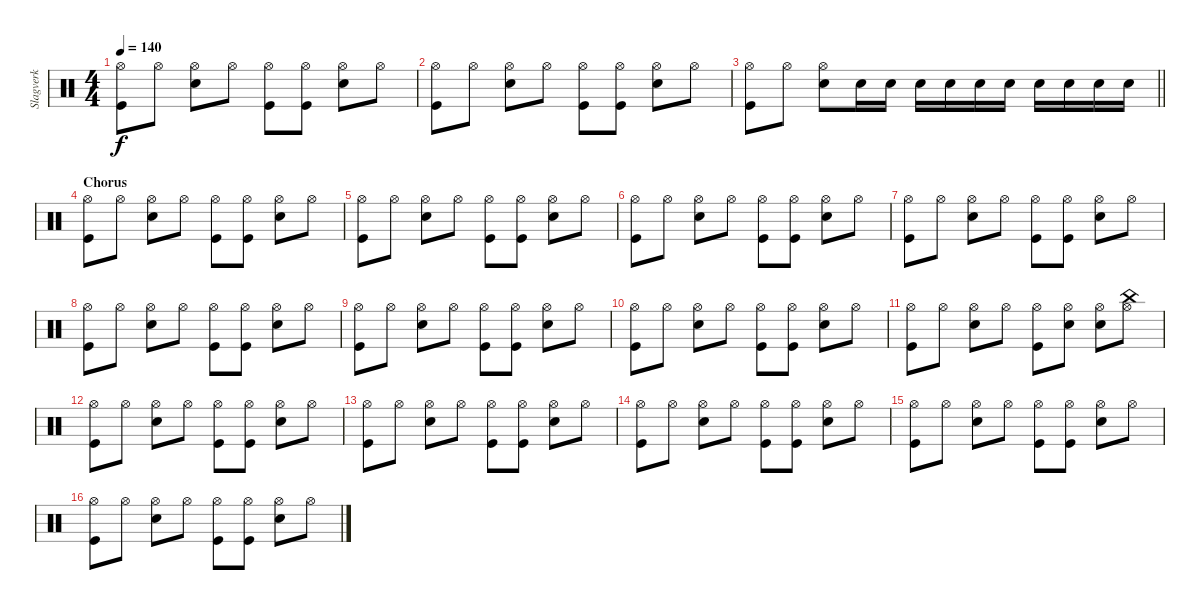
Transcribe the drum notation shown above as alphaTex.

\track ("Slagverk" "Slagverk") {instrument percussion}
\staff {score}
\articulation defaults
\ts (4 4)
\tempo 140
\clef neutral
\ks c
("Hi-Hat (open)" "Kick (hit)").8{dy f} "Hi-Hat (open)".8 ("Hi-Hat (open)" "Snare (hit) 2").8 "Hi-Hat (open)".8 ("Hi-Hat (open)" "Kick (hit)").8 ("Hi-Hat (open)" "Kick (hit)").8 ("Hi-Hat (open)" "Snare (hit) 2").8 "Hi-Hat (open)".8 |
("Hi-Hat (open)" "Kick (hit)").8 "Hi-Hat (open)".8 ("Hi-Hat (open)" "Snare (hit) 2").8 "Hi-Hat (open)".8 ("Hi-Hat (open)" "Kick (hit)").8 ("Hi-Hat (open)" "Kick (hit)").8 ("Hi-Hat (open)" "Snare (hit) 2").8 "Hi-Hat (open)".8 |
\barLineRight lightlight
("Hi-Hat (open)" "Kick (hit)").8 "Hi-Hat (open)".8 ("Hi-Hat (open)" "Snare (hit) 2").8 "Snare (hit) 2".16 "Snare (hit) 2".16 "Snare (hit) 2".16 "Snare (hit) 2".16 "Snare (hit) 2".16 "Snare (hit) 2".16 "Snare (hit) 2".16 "Snare (hit) 2".16 "Snare (hit) 2".16 "Snare (hit) 2".16 |
\section ("" "Chorus")
("Hi-Hat (open)" "Kick (hit)").8 "Hi-Hat (open)".8 ("Hi-Hat (open)" "Snare (hit) 2").8 "Hi-Hat (open)".8 ("Hi-Hat (open)" "Kick (hit)").8 ("Hi-Hat (open)" "Kick (hit)").8 ("Hi-Hat (open)" "Snare (hit) 2").8 "Hi-Hat (open)".8 |
("Hi-Hat (open)" "Kick (hit)").8 "Hi-Hat (open)".8 ("Hi-Hat (open)" "Snare (hit) 2").8 "Hi-Hat (open)".8 ("Hi-Hat (open)" "Kick (hit)").8 ("Hi-Hat (open)" "Kick (hit)").8 ("Hi-Hat (open)" "Snare (hit) 2").8 "Hi-Hat (open)".8 |
("Hi-Hat (open)" "Kick (hit)").8 "Hi-Hat (open)".8 ("Hi-Hat (open)" "Snare (hit) 2").8 "Hi-Hat (open)".8 ("Hi-Hat (open)" "Kick (hit)").8 ("Hi-Hat (open)" "Kick (hit)").8 ("Hi-Hat (open)" "Snare (hit) 2").8 "Hi-Hat (open)".8 |
("Hi-Hat (open)" "Kick (hit)").8 "Hi-Hat (open)".8 ("Hi-Hat (open)" "Snare (hit) 2").8 "Hi-Hat (open)".8 ("Hi-Hat (open)" "Kick (hit)").8 ("Hi-Hat (open)" "Kick (hit)").8 ("Hi-Hat (open)" "Snare (hit) 2").8 "Hi-Hat (open)".8 |
("Hi-Hat (open)" "Kick (hit)").8 "Hi-Hat (open)".8 ("Hi-Hat (open)" "Snare (hit) 2").8 "Hi-Hat (open)".8 ("Hi-Hat (open)" "Kick (hit)").8 ("Hi-Hat (open)" "Kick (hit)").8 ("Hi-Hat (open)" "Snare (hit) 2").8 "Hi-Hat (open)".8 |
("Hi-Hat (open)" "Kick (hit)").8 "Hi-Hat (open)".8 ("Hi-Hat (open)" "Snare (hit) 2").8 "Hi-Hat (open)".8 ("Hi-Hat (open)" "Kick (hit)").8 ("Hi-Hat (open)" "Kick (hit)").8 ("Hi-Hat (open)" "Snare (hit) 2").8 "Hi-Hat (open)".8 |
("Hi-Hat (open)" "Kick (hit)").8 "Hi-Hat (open)".8 ("Hi-Hat (open)" "Snare (hit) 2").8 "Hi-Hat (open)".8 ("Hi-Hat (open)" "Kick (hit)").8 ("Hi-Hat (open)" "Kick (hit)").8 ("Hi-Hat (open)" "Snare (hit) 2").8 "Hi-Hat (open)".8 |
("Hi-Hat (open)" "Kick (hit)").8 "Hi-Hat (open)".8 ("Hi-Hat (open)" "Snare (hit) 2").8 "Hi-Hat (open)".8 ("Hi-Hat (open)" "Kick (hit)").8 ("Snare (hit) 2" "Hi-Hat (open)").8 ("Hi-Hat (open)" "Snare (hit) 2").8 ("Hi-Hat (open)" "China (hit)").8 |
("Hi-Hat (open)" "Kick (hit)").8 "Hi-Hat (open)".8 ("Hi-Hat (open)" "Snare (hit) 2").8 "Hi-Hat (open)".8 ("Hi-Hat (open)" "Kick (hit)").8 ("Hi-Hat (open)" "Kick (hit)").8 ("Hi-Hat (open)" "Snare (hit) 2").8 "Hi-Hat (open)".8 |
("Hi-Hat (open)" "Kick (hit)").8 "Hi-Hat (open)".8 ("Hi-Hat (open)" "Snare (hit) 2").8 "Hi-Hat (open)".8 ("Hi-Hat (open)" "Kick (hit)").8 ("Hi-Hat (open)" "Kick (hit)").8 ("Hi-Hat (open)" "Snare (hit) 2").8 "Hi-Hat (open)".8 |
("Hi-Hat (open)" "Kick (hit)").8 "Hi-Hat (open)".8 ("Hi-Hat (open)" "Snare (hit) 2").8 "Hi-Hat (open)".8 ("Hi-Hat (open)" "Kick (hit)").8 ("Hi-Hat (open)" "Kick (hit)").8 ("Hi-Hat (open)" "Snare (hit) 2").8 "Hi-Hat (open)".8 |
("Hi-Hat (open)" "Kick (hit)").8 "Hi-Hat (open)".8 ("Hi-Hat (open)" "Snare (hit) 2").8 "Hi-Hat (open)".8 ("Hi-Hat (open)" "Kick (hit)").8 ("Hi-Hat (open)" "Kick (hit)").8 ("Hi-Hat (open)" "Snare (hit) 2").8 "Hi-Hat (open)".8 |
("Hi-Hat (open)" "Kick (hit)").8 "Hi-Hat (open)".8 ("Hi-Hat (open)" "Snare (hit) 2").8 "Hi-Hat (open)".8 ("Hi-Hat (open)" "Kick (hit)").8 ("Hi-Hat (open)" "Kick (hit)").8 ("Hi-Hat (open)" "Snare (hit) 2").8 "Hi-Hat (open)".8
